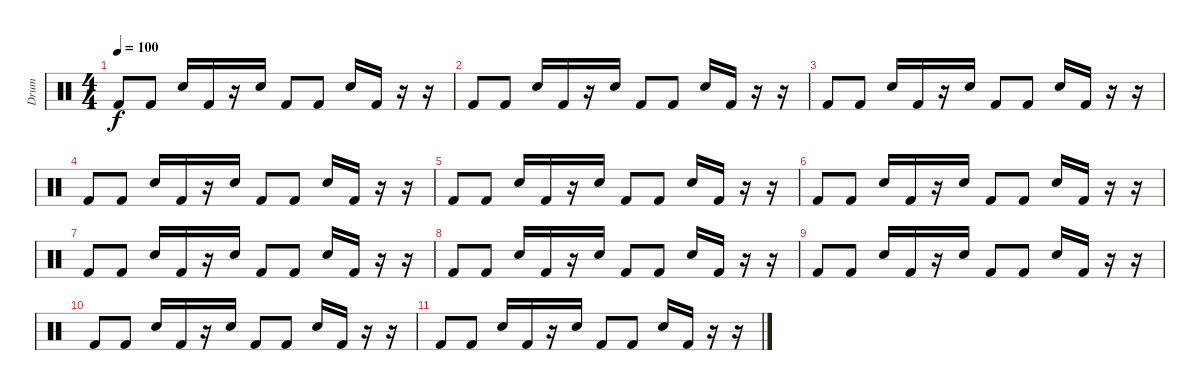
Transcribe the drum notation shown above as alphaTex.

\track ("Drum" "Drum") {instrument percussion}
\staff {score}
\articulation defaults
\ts (4 4)
\tempo 100
\clef neutral
\ks c "Kick (hit) 2".8{dy f} "Kick (hit) 2".8 "Electric Snare (hit)".16 "Kick (hit) 2".16
r.16 "Electric Snare (hit)".16 "Kick (hit) 2".8 "Kick (hit) 2".8 "Electric Snare (hit)".16 "Kick (hit) 2".16 r.16 r.16 |
"Kick (hit) 2".8 "Kick (hit) 2".8 "Electric Snare (hit)".16 "Kick (hit) 2".16 r.16 "Electric Snare (hit)".16 "Kick (hit) 2".8 "Kick (hit) 2".8 "Electric Snare (hit)".16 "Kick (hit) 2".16 r.16 r.16 |
"Kick (hit) 2".8 "Kick (hit) 2".8 "Electric Snare (hit)".16 "Kick (hit) 2".16 r.16 "Electric Snare (hit)".16 "Kick (hit) 2".8 "Kick (hit) 2".8 "Electric Snare (hit)".16 "Kick (hit) 2".16 r.16 r.16 |
"Kick (hit) 2".8 "Kick (hit) 2".8 "Electric Snare (hit)".16 "Kick (hit) 2".16 r.16 "Electric Snare (hit)".16 "Kick (hit) 2".8 "Kick (hit) 2".8 "Electric Snare (hit)".16 "Kick (hit) 2".16 r.16 r.16 |
"Kick (hit) 2".8 "Kick (hit) 2".8 "Electric Snare (hit)".16 "Kick (hit) 2".16 r.16 "Electric Snare (hit)".16 "Kick (hit) 2".8 "Kick (hit) 2".8 "Electric Snare (hit)".16 "Kick (hit) 2".16 r.16 r.16 |
"Kick (hit) 2".8 "Kick (hit) 2".8 "Electric Snare (hit)".16 "Kick (hit) 2".16 r.16 "Electric Snare (hit)".16 "Kick (hit) 2".8 "Kick (hit) 2".8 "Electric Snare (hit)".16 "Kick (hit) 2".16 r.16 r.16 |
"Kick (hit) 2".8 "Kick (hit) 2".8 "Electric Snare (hit)".16 "Kick (hit) 2".16 r.16 "Electric Snare (hit)".16 "Kick (hit) 2".8 "Kick (hit) 2".8 "Electric Snare (hit)".16 "Kick (hit) 2".16 r.16 r.16 |
"Kick (hit) 2".8 "Kick (hit) 2".8 "Electric Snare (hit)".16 "Kick (hit) 2".16 r.16 "Electric Snare (hit)".16 "Kick (hit) 2".8 "Kick (hit) 2".8 "Electric Snare (hit)".16 "Kick (hit) 2".16 r.16 r.16 |
"Kick (hit) 2".8 "Kick (hit) 2".8 "Electric Snare (hit)".16 "Kick (hit) 2".16 r.16 "Electric Snare (hit)".16 "Kick (hit) 2".8 "Kick (hit) 2".8 "Electric Snare (hit)".16 "Kick (hit) 2".16 r.16 r.16 |
"Kick (hit) 2".8 "Kick (hit) 2".8 "Electric Snare (hit)".16 "Kick (hit) 2".16 r.16 "Electric Snare (hit)".16 "Kick (hit) 2".8 "Kick (hit) 2".8 "Electric Snare (hit)".16 "Kick (hit) 2".16 r.16 r.16 |
"Kick (hit) 2".8 "Kick (hit) 2".8 "Electric Snare (hit)".16 "Kick (hit) 2".16 r.16 "Electric Snare (hit)".16 "Kick (hit) 2".8 "Kick (hit) 2".8 "Electric Snare (hit)".16 "Kick (hit) 2".16 r.16 r.16
